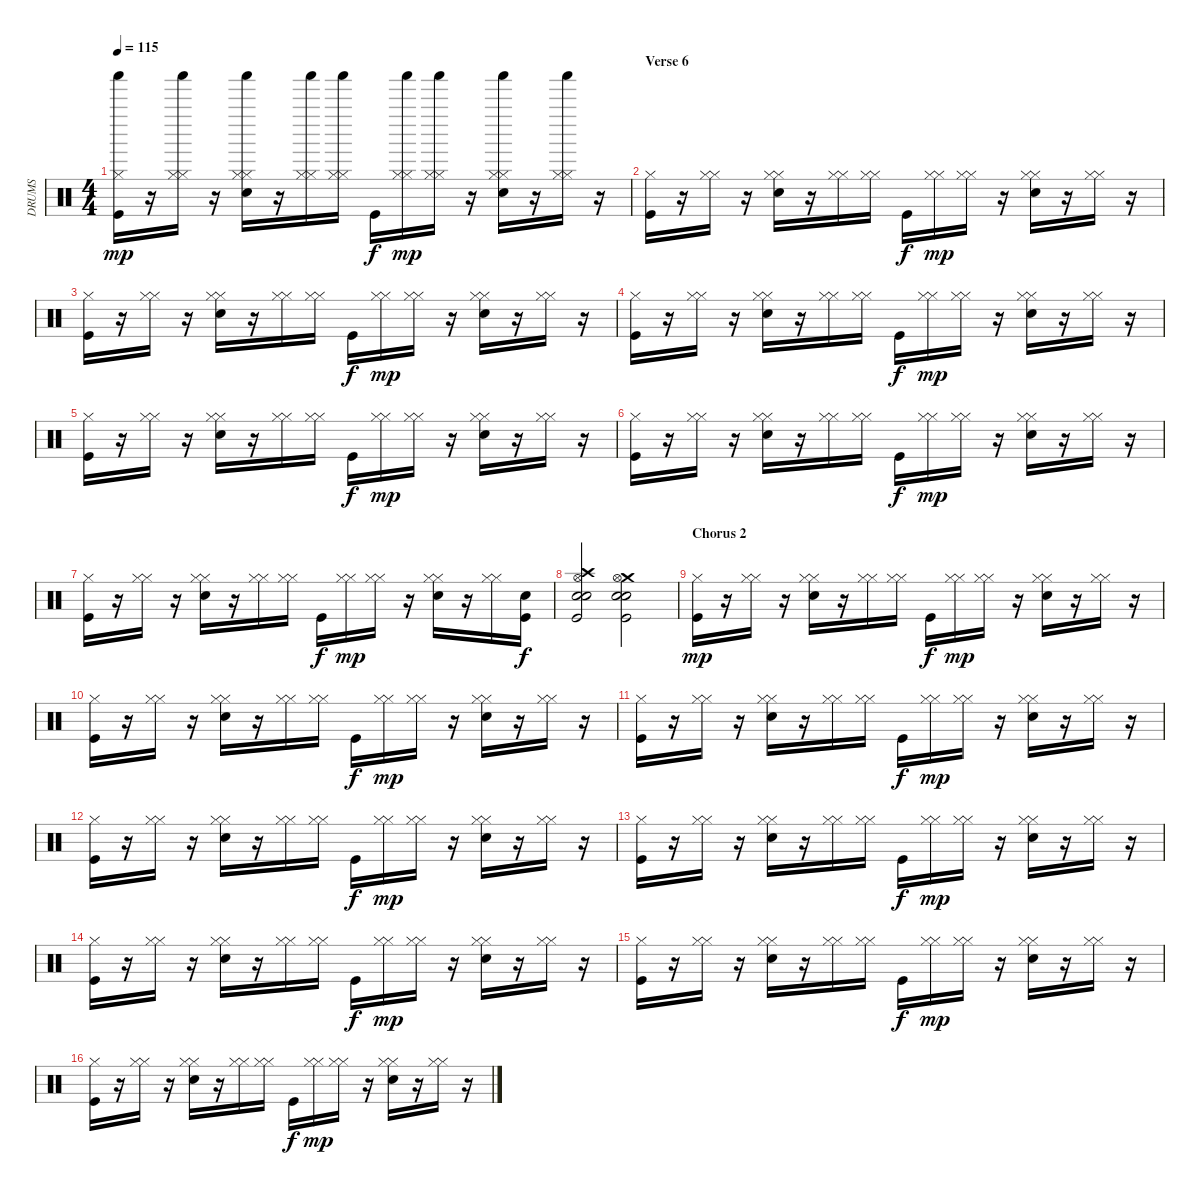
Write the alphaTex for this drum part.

\track ("DRUMS" "DRUMS") {instrument percussion}
\staff {score}
\articulation defaults
\ts (4 4)
\tempo 115
\clef neutral
\ks c
("Shaker (hit)" "Kick (hit)" "Hi-Hat (closed)").16{dy mp} r.16 ("Hi-Hat (closed)" "Shaker (hit)" "Hi-Hat (closed)").16 r.16 ("Hi-Hat (closed)" "Shaker (hit)" "Snare (hit) 2" "Hi-Hat (closed)").16 r.16 ("Hi-Hat (closed)" "Shaker (hit)" "Hi-Hat (closed)").16 ("Hi-Hat (closed)" "Shaker (hit)" "Hi-Hat (closed)").16 "Kick (hit)".16{dy f} ("Hi-Hat (closed)" "Shaker (hit)" "Hi-Hat (closed)").16{dy mp} ("Hi-Hat (closed)" "Shaker (hit)" "Hi-Hat (closed)").16 r.16 ("Hi-Hat (closed)" "Shaker (hit)" "Snare (hit) 2" "Hi-Hat (closed)").16 r.16 ("Hi-Hat (closed)" "Shaker (hit)" "Hi-Hat (closed)").16 r.16 |
\section ("" "Verse 6")
("Kick (hit)" "Hi-Hat (closed)").16 r.16 ("Hi-Hat (closed)" "Hi-Hat (closed)").16 r.16 ("Hi-Hat (closed)" "Snare (hit) 2" "Hi-Hat (closed)").16 r.16 ("Hi-Hat (closed)" "Hi-Hat (closed)").16 ("Hi-Hat (closed)" "Hi-Hat (closed)").16 "Kick (hit)".16{dy f} ("Hi-Hat (closed)" "Hi-Hat (closed)").16{dy mp} ("Hi-Hat (closed)" "Hi-Hat (closed)").16 r.16 ("Hi-Hat (closed)" "Snare (hit) 2" "Hi-Hat (closed)").16 r.16 ("Hi-Hat (closed)" "Hi-Hat (closed)").16 r.16 |
("Kick (hit)" "Hi-Hat (closed)").16 r.16 ("Hi-Hat (closed)" "Hi-Hat (closed)").16 r.16 ("Hi-Hat (closed)" "Snare (hit) 2" "Hi-Hat (closed)").16 r.16 ("Hi-Hat (closed)" "Hi-Hat (closed)").16 ("Hi-Hat (closed)" "Hi-Hat (closed)").16 "Kick (hit)".16{dy f} ("Hi-Hat (closed)" "Hi-Hat (closed)").16{dy mp} ("Hi-Hat (closed)" "Hi-Hat (closed)").16 r.16 ("Hi-Hat (closed)" "Snare (hit) 2" "Hi-Hat (closed)").16 r.16 ("Hi-Hat (closed)" "Hi-Hat (closed)").16 r.16 |
("Kick (hit)" "Hi-Hat (closed)").16 r.16 ("Hi-Hat (closed)" "Hi-Hat (closed)").16 r.16 ("Hi-Hat (closed)" "Snare (hit) 2" "Hi-Hat (closed)").16 r.16 ("Hi-Hat (closed)" "Hi-Hat (closed)").16 ("Hi-Hat (closed)" "Hi-Hat (closed)").16 "Kick (hit)".16{dy f} ("Hi-Hat (closed)" "Hi-Hat (closed)").16{dy mp} ("Hi-Hat (closed)" "Hi-Hat (closed)").16 r.16 ("Hi-Hat (closed)" "Snare (hit) 2" "Hi-Hat (closed)").16 r.16 ("Hi-Hat (closed)" "Hi-Hat (closed)").16 r.16 |
("Kick (hit)" "Hi-Hat (closed)").16 r.16 ("Hi-Hat (closed)" "Hi-Hat (closed)").16 r.16 ("Hi-Hat (closed)" "Snare (hit) 2" "Hi-Hat (closed)").16 r.16 ("Hi-Hat (closed)" "Hi-Hat (closed)").16 ("Hi-Hat (closed)" "Hi-Hat (closed)").16 "Kick (hit)".16{dy f} ("Hi-Hat (closed)" "Hi-Hat (closed)").16{dy mp} ("Hi-Hat (closed)" "Hi-Hat (closed)").16 r.16 ("Hi-Hat (closed)" "Snare (hit) 2" "Hi-Hat (closed)").16 r.16 ("Hi-Hat (closed)" "Hi-Hat (closed)").16 r.16 |
("Kick (hit)" "Hi-Hat (closed)").16 r.16 ("Hi-Hat (closed)" "Hi-Hat (closed)").16 r.16 ("Hi-Hat (closed)" "Snare (hit) 2" "Hi-Hat (closed)").16 r.16 ("Hi-Hat (closed)" "Hi-Hat (closed)").16 ("Hi-Hat (closed)" "Hi-Hat (closed)").16 "Kick (hit)".16{dy f} ("Hi-Hat (closed)" "Hi-Hat (closed)").16{dy mp} ("Hi-Hat (closed)" "Hi-Hat (closed)").16 r.16 ("Hi-Hat (closed)" "Snare (hit) 2" "Hi-Hat (closed)").16 r.16 ("Hi-Hat (closed)" "Hi-Hat (closed)").16 r.16 |
("Kick (hit)" "Hi-Hat (closed)").16 r.16 ("Hi-Hat (closed)" "Hi-Hat (closed)").16 r.16 ("Hi-Hat (closed)" "Snare (hit) 2" "Hi-Hat (closed)").16 r.16 ("Hi-Hat (closed)" "Hi-Hat (closed)").16 ("Hi-Hat (closed)" "Hi-Hat (closed)").16 "Kick (hit)".16{dy f} ("Hi-Hat (closed)" "Hi-Hat (closed)").16{dy mp} ("Hi-Hat (closed)" "Hi-Hat (closed)").16 r.16 ("Hi-Hat (closed)" "Snare (hit) 2" "Hi-Hat (closed)").16 r.16 ("Hi-Hat (closed)" "Hi-Hat (closed)").16 ("Snare (hit) 2" "Kick (hit)").16{dy f} |
("Crash high (hit)" "Hi-Hat (open)" "Snare (hit) 2" "Kick (hit)" "Electric Snare (hit)").2 ("Crash medium (hit)" "Hi-Hat (open)" "Snare (hit) 2" "Kick (hit)" "Electric Snare (hit)").2 |
\section ("" "Chorus 2")
("Kick (hit)" "Hi-Hat (closed)").16{dy mp} r.16 ("Hi-Hat (closed)" "Hi-Hat (closed)").16 r.16 ("Hi-Hat (closed)" "Snare (hit) 2" "Hi-Hat (closed)").16 r.16 ("Hi-Hat (closed)" "Hi-Hat (closed)").16 ("Hi-Hat (closed)" "Hi-Hat (closed)").16 "Kick (hit)".16{dy f} ("Hi-Hat (closed)" "Hi-Hat (closed)").16{dy mp} ("Hi-Hat (closed)" "Hi-Hat (closed)").16 r.16 ("Hi-Hat (closed)" "Snare (hit) 2" "Hi-Hat (closed)").16 r.16 ("Hi-Hat (closed)" "Hi-Hat (closed)").16 r.16 |
("Kick (hit)" "Hi-Hat (closed)").16 r.16 ("Hi-Hat (closed)" "Hi-Hat (closed)").16 r.16 ("Hi-Hat (closed)" "Snare (hit) 2" "Hi-Hat (closed)").16 r.16 ("Hi-Hat (closed)" "Hi-Hat (closed)").16 ("Hi-Hat (closed)" "Hi-Hat (closed)").16 "Kick (hit)".16{dy f} ("Hi-Hat (closed)" "Hi-Hat (closed)").16{dy mp} ("Hi-Hat (closed)" "Hi-Hat (closed)").16 r.16 ("Hi-Hat (closed)" "Snare (hit) 2" "Hi-Hat (closed)").16 r.16 ("Hi-Hat (closed)" "Hi-Hat (closed)").16 r.16 |
("Kick (hit)" "Hi-Hat (closed)").16 r.16 ("Hi-Hat (closed)" "Hi-Hat (closed)").16 r.16 ("Hi-Hat (closed)" "Snare (hit) 2" "Hi-Hat (closed)").16 r.16 ("Hi-Hat (closed)" "Hi-Hat (closed)").16 ("Hi-Hat (closed)" "Hi-Hat (closed)").16 "Kick (hit)".16{dy f} ("Hi-Hat (closed)" "Hi-Hat (closed)").16{dy mp} ("Hi-Hat (closed)" "Hi-Hat (closed)").16 r.16 ("Hi-Hat (closed)" "Snare (hit) 2" "Hi-Hat (closed)").16 r.16 ("Hi-Hat (closed)" "Hi-Hat (closed)").16 r.16 |
("Kick (hit)" "Hi-Hat (closed)").16 r.16 ("Hi-Hat (closed)" "Hi-Hat (closed)").16 r.16 ("Hi-Hat (closed)" "Snare (hit) 2" "Hi-Hat (closed)").16 r.16 ("Hi-Hat (closed)" "Hi-Hat (closed)").16 ("Hi-Hat (closed)" "Hi-Hat (closed)").16 "Kick (hit)".16{dy f} ("Hi-Hat (closed)" "Hi-Hat (closed)").16{dy mp} ("Hi-Hat (closed)" "Hi-Hat (closed)").16 r.16 ("Hi-Hat (closed)" "Snare (hit) 2" "Hi-Hat (closed)").16 r.16 ("Hi-Hat (closed)" "Hi-Hat (closed)").16 r.16 |
("Kick (hit)" "Hi-Hat (closed)").16 r.16 ("Hi-Hat (closed)" "Hi-Hat (closed)").16 r.16 ("Hi-Hat (closed)" "Snare (hit) 2" "Hi-Hat (closed)").16 r.16 ("Hi-Hat (closed)" "Hi-Hat (closed)").16 ("Hi-Hat (closed)" "Hi-Hat (closed)").16 "Kick (hit)".16{dy f} ("Hi-Hat (closed)" "Hi-Hat (closed)").16{dy mp} ("Hi-Hat (closed)" "Hi-Hat (closed)").16 r.16 ("Hi-Hat (closed)" "Snare (hit) 2" "Hi-Hat (closed)").16 r.16 ("Hi-Hat (closed)" "Hi-Hat (closed)").16 r.16 |
("Kick (hit)" "Hi-Hat (closed)").16 r.16 ("Hi-Hat (closed)" "Hi-Hat (closed)").16 r.16 ("Hi-Hat (closed)" "Snare (hit) 2" "Hi-Hat (closed)").16 r.16 ("Hi-Hat (closed)" "Hi-Hat (closed)").16 ("Hi-Hat (closed)" "Hi-Hat (closed)").16 "Kick (hit)".16{dy f} ("Hi-Hat (closed)" "Hi-Hat (closed)").16{dy mp} ("Hi-Hat (closed)" "Hi-Hat (closed)").16 r.16 ("Hi-Hat (closed)" "Snare (hit) 2" "Hi-Hat (closed)").16 r.16 ("Hi-Hat (closed)" "Hi-Hat (closed)").16 r.16 |
("Kick (hit)" "Hi-Hat (closed)").16 r.16 ("Hi-Hat (closed)" "Hi-Hat (closed)").16 r.16 ("Hi-Hat (closed)" "Snare (hit) 2" "Hi-Hat (closed)").16 r.16 ("Hi-Hat (closed)" "Hi-Hat (closed)").16 ("Hi-Hat (closed)" "Hi-Hat (closed)").16 "Kick (hit)".16{dy f} ("Hi-Hat (closed)" "Hi-Hat (closed)").16{dy mp} ("Hi-Hat (closed)" "Hi-Hat (closed)").16 r.16 ("Hi-Hat (closed)" "Snare (hit) 2" "Hi-Hat (closed)").16 r.16 ("Hi-Hat (closed)" "Hi-Hat (closed)").16 r.16 |
("Kick (hit)" "Hi-Hat (closed)").16 r.16 ("Hi-Hat (closed)" "Hi-Hat (closed)").16 r.16 ("Hi-Hat (closed)" "Snare (hit) 2" "Hi-Hat (closed)").16 r.16 ("Hi-Hat (closed)" "Hi-Hat (closed)").16 ("Hi-Hat (closed)" "Hi-Hat (closed)").16 "Kick (hit)".16{dy f} ("Hi-Hat (closed)" "Hi-Hat (closed)").16{dy mp} ("Hi-Hat (closed)" "Hi-Hat (closed)").16 r.16 ("Hi-Hat (closed)" "Snare (hit) 2" "Hi-Hat (closed)").16 r.16 ("Hi-Hat (closed)" "Hi-Hat (closed)").16 r.16
